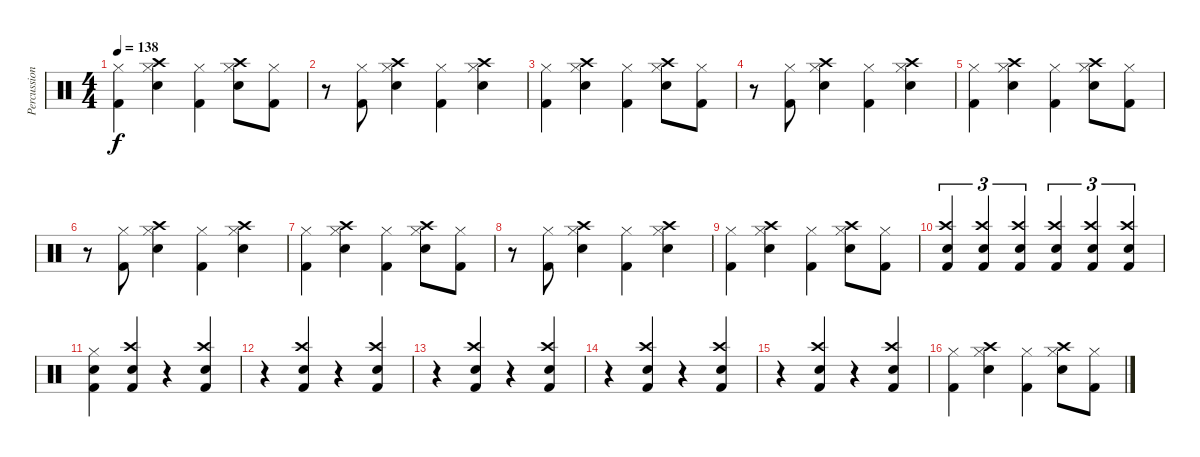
\track ("Percussion" "Percussion") {instrument percussion}
\staff {score}
\articulation defaults
\ts (4 4)
\tempo 138
\clef neutral
\ks c
("Hi-Hat (closed)" "Kick (hit) 2").4{dy f} ("Hi-Hat (closed)" "Crash high (hit)" "Electric Snare (hit)").4 ("Hi-Hat (closed)" "Kick (hit) 2").4 ("Hi-Hat (closed)" "Crash high (hit)" "Electric Snare (hit)").8 ("Hi-Hat (closed)" "Kick (hit) 2").8 |
r.8 ("Hi-Hat (closed)" "Kick (hit) 2").8 ("Hi-Hat (closed)" "Crash high (hit)" "Electric Snare (hit)").4 ("Hi-Hat (closed)" "Kick (hit) 2").4 ("Hi-Hat (closed)" "Crash high (hit)" "Electric Snare (hit)").4 |
("Hi-Hat (closed)" "Kick (hit) 2").4 ("Hi-Hat (closed)" "Crash high (hit)" "Electric Snare (hit)").4 ("Hi-Hat (closed)" "Kick (hit) 2").4 ("Hi-Hat (closed)" "Crash high (hit)" "Electric Snare (hit)").8 ("Hi-Hat (closed)" "Kick (hit) 2").8 |
r.8 ("Hi-Hat (closed)" "Kick (hit) 2").8 ("Hi-Hat (closed)" "Crash high (hit)" "Electric Snare (hit)").4 ("Hi-Hat (closed)" "Kick (hit) 2").4 ("Hi-Hat (closed)" "Crash high (hit)" "Electric Snare (hit)").4 |
("Hi-Hat (closed)" "Kick (hit) 2").4 ("Hi-Hat (closed)" "Crash high (hit)" "Electric Snare (hit)").4 ("Hi-Hat (closed)" "Kick (hit) 2").4 ("Hi-Hat (closed)" "Crash high (hit)" "Electric Snare (hit)").8 ("Hi-Hat (closed)" "Kick (hit) 2").8 |
r.8 ("Hi-Hat (closed)" "Kick (hit) 2").8 ("Hi-Hat (closed)" "Crash high (hit)" "Electric Snare (hit)").4 ("Hi-Hat (closed)" "Kick (hit) 2").4 ("Hi-Hat (closed)" "Crash high (hit)" "Electric Snare (hit)").4 |
("Hi-Hat (closed)" "Kick (hit) 2").4 ("Hi-Hat (closed)" "Crash high (hit)" "Electric Snare (hit)").4 ("Hi-Hat (closed)" "Kick (hit) 2").4 ("Hi-Hat (closed)" "Crash high (hit)" "Electric Snare (hit)").8 ("Hi-Hat (closed)" "Kick (hit) 2").8 |
r.8 ("Hi-Hat (closed)" "Kick (hit) 2").8 ("Hi-Hat (closed)" "Crash high (hit)" "Electric Snare (hit)").4 ("Hi-Hat (closed)" "Kick (hit) 2").4 ("Hi-Hat (closed)" "Crash high (hit)" "Electric Snare (hit)").4 |
("Hi-Hat (closed)" "Kick (hit) 2").4 ("Hi-Hat (closed)" "Crash high (hit)" "Electric Snare (hit)").4 ("Hi-Hat (closed)" "Kick (hit) 2").4 ("Hi-Hat (closed)" "Crash high (hit)" "Electric Snare (hit)").8 ("Hi-Hat (closed)" "Kick (hit) 2").8 |
("Crash high (hit)" "Electric Snare (hit)" "Kick (hit) 2").4{tu (3 2)} ("Crash high (hit)" "Electric Snare (hit)" "Kick (hit) 2").4{tu (3 2)} ("Crash high (hit)" "Electric Snare (hit)" "Kick (hit) 2").4{tu (3 2)} ("Crash high (hit)" "Electric Snare (hit)" "Kick (hit) 2").4{tu (3 2)} ("Crash high (hit)" "Electric Snare (hit)" "Kick (hit) 2").4{tu (3 2)} ("Crash high (hit)" "Electric Snare (hit)" "Kick (hit) 2").4{tu (3 2)} |
("Hi-Hat (closed)" "Electric Snare (hit)" "Kick (hit) 2").4 ("Crash high (hit)" "Electric Snare (hit)" "Kick (hit) 2").4 r.4 ("Crash high (hit)" "Electric Snare (hit)" "Kick (hit) 2").4 |
r.4 ("Crash high (hit)" "Electric Snare (hit)" "Kick (hit) 2").4 r.4 ("Crash high (hit)" "Electric Snare (hit)" "Kick (hit) 2").4 |
r.4 ("Crash high (hit)" "Electric Snare (hit)" "Kick (hit) 2").4 r.4 ("Crash high (hit)" "Electric Snare (hit)" "Kick (hit) 2").4 |
r.4 ("Crash high (hit)" "Electric Snare (hit)" "Kick (hit) 2").4 r.4 ("Crash high (hit)" "Electric Snare (hit)" "Kick (hit) 2").4 |
r.4 ("Crash high (hit)" "Electric Snare (hit)" "Kick (hit) 2").4 r.4 ("Crash high (hit)" "Electric Snare (hit)" "Kick (hit) 2").4 |
("Hi-Hat (closed)" "Kick (hit) 2").4 ("Hi-Hat (closed)" "Crash high (hit)" "Electric Snare (hit)").4 ("Hi-Hat (closed)" "Kick (hit) 2").4 ("Hi-Hat (closed)" "Crash high (hit)" "Electric Snare (hit)").8 ("Hi-Hat (closed)" "Kick (hit) 2").8
